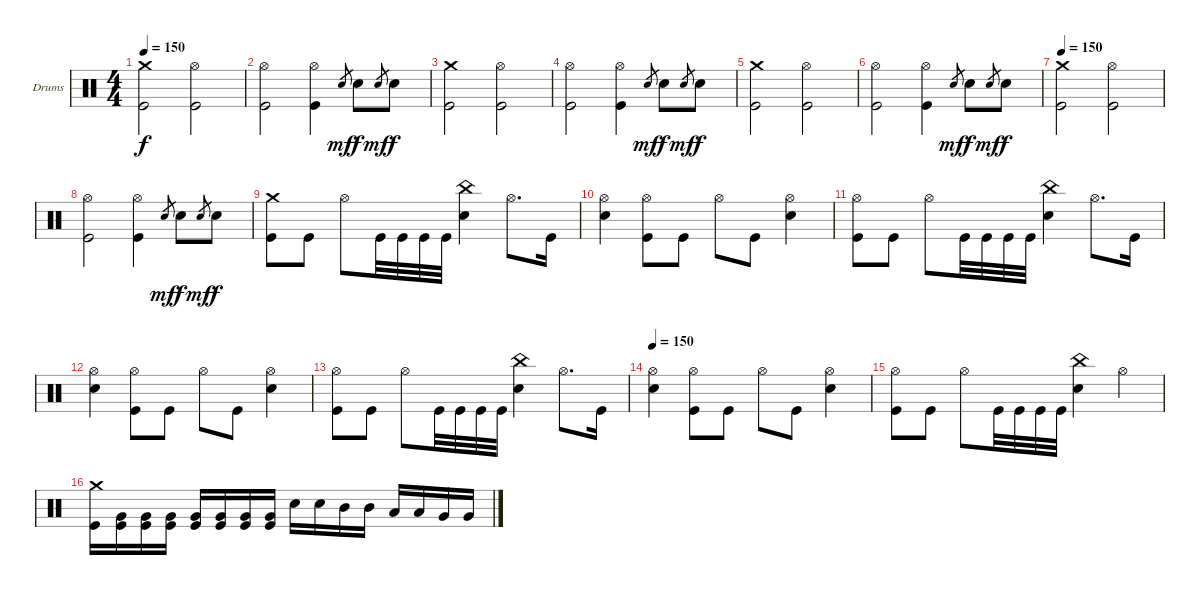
\bracketExtendMode groupsimilarinstruments
\firstSystemTrackNameOrientation horizontal
\otherSystemsTrackNameOrientation horizontal
\track ("Drumkit" "Drums") {instrument percussion}
\staff {score}
\articulation defaults
\ts (4 4)
\tempo 150
\clef neutral
\ks c
("Crash medium (hit)" "Kick (hit)").2{dy f} ("Hi-Hat (open)" "Kick (hit)").2 |
("Hi-Hat (open)" "Kick (hit)").2 ("Hi-Hat (open)" "Kick (hit)").4 "Snare (hit) 2".8{gr dy mf} "Snare (hit) 2".8{dy f} "Snare (hit) 2".8{gr dy mf} "Snare (hit) 2".8{dy f} |
("Crash medium (hit)" "Kick (hit)").2 ("Hi-Hat (open)" "Kick (hit)").2 |
("Hi-Hat (open)" "Kick (hit)").2 ("Hi-Hat (open)" "Kick (hit)").4 "Snare (hit) 2".8{gr dy mf} "Snare (hit) 2".8{dy f} "Snare (hit) 2".8{gr dy mf} "Snare (hit) 2".8{dy f} |
("Crash medium (hit)" "Kick (hit)").2 ("Hi-Hat (open)" "Kick (hit)").2 |
("Hi-Hat (open)" "Kick (hit)").2 ("Hi-Hat (open)" "Kick (hit)").4 "Snare (hit) 2".8{gr dy mf} "Snare (hit) 2".8{dy f} "Snare (hit) 2".8{gr dy mf} "Snare (hit) 2".8{dy f} |
\tempo 150
("Crash medium (hit)" "Kick (hit)").2 ("Hi-Hat (open)" "Kick (hit)").2 |
("Hi-Hat (open)" "Kick (hit)").2 ("Hi-Hat (open)" "Kick (hit)").4 "Snare (hit) 2".8{gr dy mf} "Snare (hit) 2".8{dy f} "Snare (hit) 2".8{gr dy mf} "Snare (hit) 2".8{dy f} |
("Crash medium (hit)" "Kick (hit)").8 "Kick (hit)".8 "Hi-Hat (open)".8 "Kick (hit)".32 "Kick (hit)".32 "Kick (hit)".32 "Kick (hit)".32 ("China (hit)" "Snare (hit) 2").4 "Hi-Hat (open)".8{d} "Kick (hit)".16 |
("Hi-Hat (open)" "Snare (hit) 2").4 ("Hi-Hat (open)" "Kick (hit)").8 "Kick (hit)".8 "Hi-Hat (open)".8 "Kick (hit)".8 ("Hi-Hat (open)" "Snare (hit) 2").4 |
("Hi-Hat (open)" "Kick (hit)").8 "Kick (hit)".8 "Hi-Hat (open)".8 "Kick (hit)".32 "Kick (hit)".32 "Kick (hit)".32 "Kick (hit)".32 ("China (hit)" "Snare (hit) 2").4 "Hi-Hat (open)".8{d} "Kick (hit)".16 |
("Hi-Hat (open)" "Snare (hit) 2").4 ("Hi-Hat (open)" "Kick (hit)").8 "Kick (hit)".8 "Hi-Hat (open)".8 "Kick (hit)".8 ("Hi-Hat (open)" "Snare (hit) 2").4 |
("Hi-Hat (open)" "Kick (hit)").8 "Kick (hit)".8 "Hi-Hat (open)".8 "Kick (hit)".32 "Kick (hit)".32 "Kick (hit)".32 "Kick (hit)".32 ("China (hit)" "Snare (hit) 2").4 "Hi-Hat (open)".8{d} "Kick (hit)".16 |
\tempo 150
("Hi-Hat (open)" "Snare (hit) 2").4 ("Hi-Hat (open)" "Kick (hit)").8 "Kick (hit)".8 "Hi-Hat (open)".8 "Kick (hit)".8 ("Hi-Hat (open)" "Snare (hit) 2").4 |
("Hi-Hat (open)" "Kick (hit)").8 "Kick (hit)".8 "Hi-Hat (open)".8 "Kick (hit)".32 "Kick (hit)".32 "Kick (hit)".32 "Kick (hit)".32 ("China (hit)" "Snare (hit) 2").4 "Hi-Hat (open)".4 |
("Crash medium (hit)" "Kick (hit)").16 ("Very Low Tom (hit)" "Kick (hit)").16 ("Very Low Tom (hit)" "Kick (hit)").16 ("Very Low Tom (hit)" "Kick (hit)").16 ("Very Low Tom (hit)" "Kick (hit)").16 ("Very Low Tom (hit)" "Kick (hit)").16 ("Very Low Tom (hit)" "Kick (hit)").16 ("Very Low Tom (hit)" "Kick (hit)").16 "Snare (hit) 2".16 "Snare (hit) 2".16 "Mid Tom (hit)".16 "Mid Tom (hit)".16 "Low Tom (hit)".16 "Low Tom (hit)".16 "Very Low Tom (hit)".16 "Very Low Tom (hit)".16
